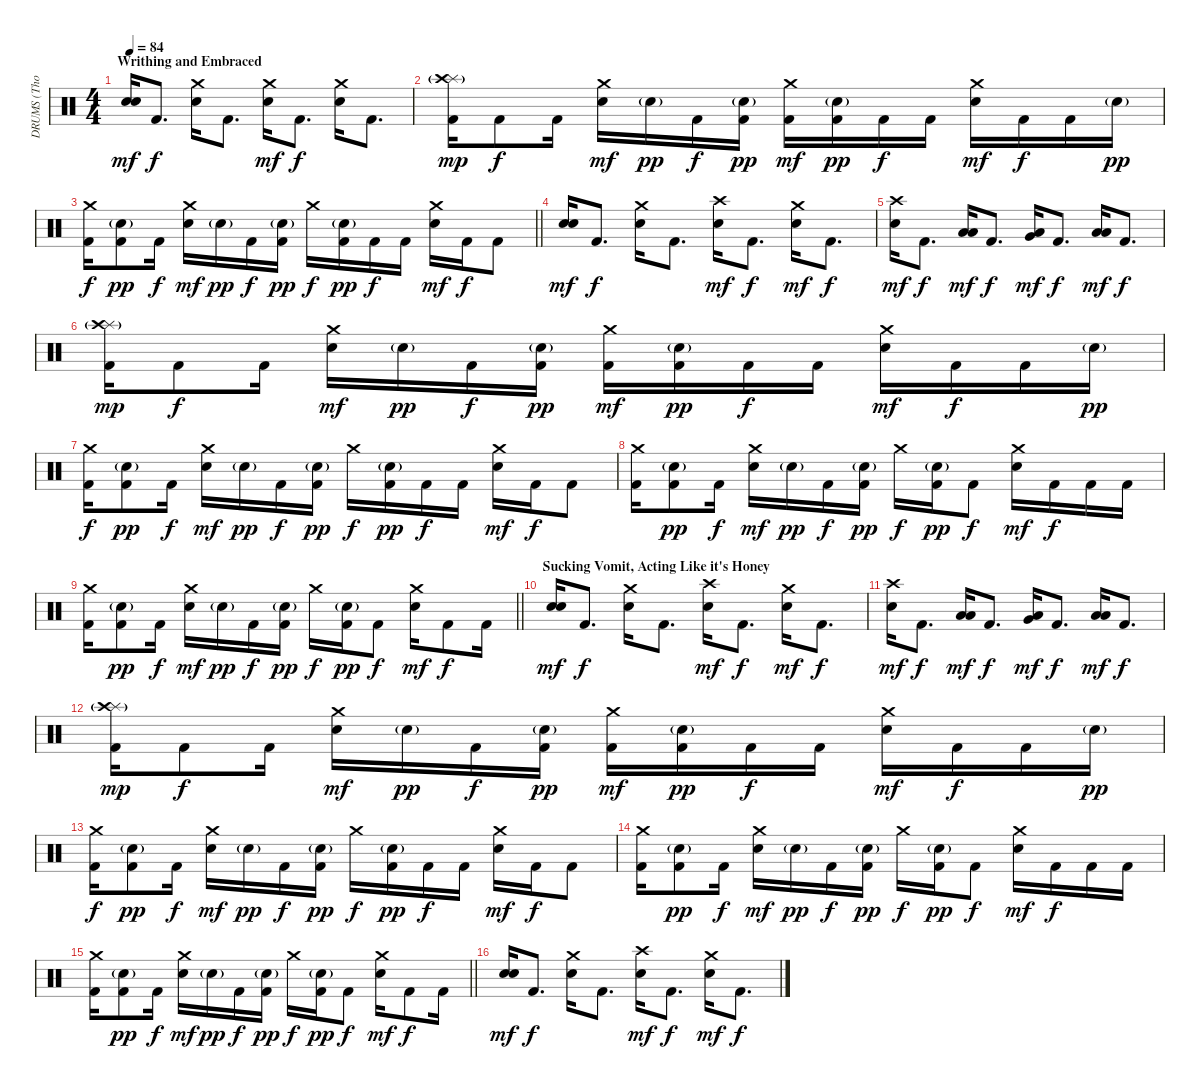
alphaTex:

\track ("DRUMS (Thomas Haake)" "DRUMS (Tho") {instrument percussion}
\staff {score}
\articulation defaults
\ts (4 4)
\section ("" "Writhing and Embraced")
\tempo 84
\clef neutral
\ks c
("Electric Snare (hit)" "Electric Snare (hit)").16{bd 120 dy mf} "Kick (hit) 2".8{d dy f} ("Crash medium (hit)" "Electric Snare (hit)").16 "Kick (hit) 2".8{d} ("Crash medium (hit)" "Electric Snare (hit)").16{dy mf} "Kick (hit) 2".8{d dy f} ("Crash medium (hit)" "Electric Snare (hit)").16 "Kick (hit) 2".8{d} |
("Splash (hit)" "Crash high (hit)"{g} "Kick (hit) 2").16{dy mp} "Kick (hit) 2".8{dy f} "Kick (hit) 2".16 ("Crash medium (hit)" "Electric Snare (hit)").16{dy mf} "Electric Snare (hit)"{g}.16{dy pp} "Kick (hit) 2".16{dy f} ("Electric Snare (hit)"{g} "Kick (hit) 2").16{dy pp} ("Crash medium (hit)" "Kick (hit) 2").16{dy mf} ("Electric Snare (hit)"{g} "Kick (hit) 2").16{dy pp} "Kick (hit) 2".16{dy f} "Kick (hit) 2".16 ("Crash medium (hit)" "Electric Snare (hit)").16{dy mf} "Kick (hit) 2".16{dy f} "Kick (hit) 2".16 "Electric Snare (hit)"{g}.16{dy pp} |
\barLineRight lightlight
("Crash medium (hit)" "Kick (hit) 2").16{dy f} ("Electric Snare (hit)"{g} "Kick (hit) 2").8{dy pp} "Kick (hit) 2".16{dy f} ("Crash medium (hit)" "Electric Snare (hit)").16{dy mf} "Electric Snare (hit)"{g}.16{dy pp} "Kick (hit) 2".16{dy f} ("Electric Snare (hit)"{g} "Kick (hit) 2").16{dy pp} "Crash medium (hit)".16{dy f} ("Electric Snare (hit)"{g} "Kick (hit) 2").16{dy pp} "Kick (hit) 2".16{dy f} "Kick (hit) 2".16 ("Crash medium (hit)" "Electric Snare (hit)").16{dy mf} "Kick (hit) 2".16{dy f} "Kick (hit) 2".8 |
("Electric Snare (hit)" "Electric Snare (hit)").16{bd 120 dy mf} "Kick (hit) 2".8{d dy f} ("Crash medium (hit)" "Electric Snare (hit)").16 "Kick (hit) 2".8{d} ("Crash high (hit)" "Electric Snare (hit)").16{dy mf} "Kick (hit) 2".8{d dy f} ("Crash medium (hit)" "Electric Snare (hit)").16{dy mf} "Kick (hit) 2".8{d dy f} |
("Crash high (hit)" "Electric Snare (hit)").16{dy mf} "Kick (hit) 2".8{d dy f} ("Low Tom (hit)" "Low Floor Tom (hit)").16{bd 60 dy mf} "Kick (hit) 2".8{d dy f} ("Very Low Tom (hit)" "Low Floor Tom (hit)").16{dy mf} "Kick (hit) 2".8{d dy f} ("Low Floor Tom (hit)" "Low Floor Tom (hit)").16{dy mf} "Kick (hit) 2".8{d dy f} |
("Splash (hit)" "Crash high (hit)"{g} "Kick (hit) 2").16{dy mp} "Kick (hit) 2".8{dy f} "Kick (hit) 2".16 ("Crash medium (hit)" "Electric Snare (hit)").16{dy mf} "Electric Snare (hit)"{g}.16{dy pp} "Kick (hit) 2".16{dy f} ("Electric Snare (hit)"{g} "Kick (hit) 2").16{dy pp} ("Crash medium (hit)" "Kick (hit) 2").16{dy mf} ("Electric Snare (hit)"{g} "Kick (hit) 2").16{dy pp} "Kick (hit) 2".16{dy f} "Kick (hit) 2".16 ("Crash medium (hit)" "Electric Snare (hit)").16{dy mf} "Kick (hit) 2".16{dy f} "Kick (hit) 2".16 "Electric Snare (hit)"{g}.16{dy pp} |
("Crash medium (hit)" "Kick (hit) 2").16{dy f} ("Electric Snare (hit)"{g} "Kick (hit) 2").8{dy pp} "Kick (hit) 2".16{dy f} ("Crash medium (hit)" "Electric Snare (hit)").16{dy mf} "Electric Snare (hit)"{g}.16{dy pp} "Kick (hit) 2".16{dy f} ("Electric Snare (hit)"{g} "Kick (hit) 2").16{dy pp} "Crash medium (hit)".16{dy f} ("Electric Snare (hit)"{g} "Kick (hit) 2").16{dy pp} "Kick (hit) 2".16{dy f} "Kick (hit) 2".16 ("Crash medium (hit)" "Electric Snare (hit)").16{dy mf} "Kick (hit) 2".16{dy f} "Kick (hit) 2".8 |
("Crash medium (hit)" "Kick (hit) 2").16 ("Electric Snare (hit)"{g} "Kick (hit) 2").8{dy pp} "Kick (hit) 2".16{dy f} ("Crash medium (hit)" "Electric Snare (hit)").16{dy mf} "Electric Snare (hit)"{g}.16{dy pp} "Kick (hit) 2".16{dy f} ("Electric Snare (hit)"{g} "Kick (hit) 2").16{dy pp} "Crash medium (hit)".16{dy f} ("Electric Snare (hit)"{g} "Kick (hit) 2").16{dy pp} "Kick (hit) 2".8{dy f} ("Crash medium (hit)" "Electric Snare (hit)").16{dy mf} "Kick (hit) 2".16{dy f} "Kick (hit) 2".16 "Kick (hit) 2".16 |
\barLineRight lightlight
("Crash medium (hit)" "Kick (hit) 2").16 ("Electric Snare (hit)"{g} "Kick (hit) 2").8{dy pp} "Kick (hit) 2".16{dy f} ("Crash medium (hit)" "Electric Snare (hit)").16{dy mf} "Electric Snare (hit)"{g}.16{dy pp} "Kick (hit) 2".16{dy f} ("Electric Snare (hit)"{g} "Kick (hit) 2").16{dy pp} "Crash medium (hit)".16{dy f} ("Electric Snare (hit)"{g} "Kick (hit) 2").16{dy pp} "Kick (hit) 2".8{dy f} ("Crash medium (hit)" "Electric Snare (hit)").16{dy mf} "Kick (hit) 2".8{dy f} "Kick (hit) 2".16 |
\section ("" "Sucking Vomit, Acting Like it's Honey")
("Electric Snare (hit)" "Electric Snare (hit)").16{bd 120 dy mf} "Kick (hit) 2".8{d dy f} ("Crash medium (hit)" "Electric Snare (hit)").16 "Kick (hit) 2".8{d} ("Crash high (hit)" "Electric Snare (hit)").16{dy mf} "Kick (hit) 2".8{d dy f} ("Crash medium (hit)" "Electric Snare (hit)").16{dy mf} "Kick (hit) 2".8{d dy f} |
("Crash high (hit)" "Electric Snare (hit)").16{dy mf} "Kick (hit) 2".8{d dy f} ("Low Tom (hit)" "Low Floor Tom (hit)").16{bd 30 dy mf} "Kick (hit) 2".8{d dy f} ("Very Low Tom (hit)" "Low Floor Tom (hit)").16{dy mf} "Kick (hit) 2".8{d dy f} ("Low Floor Tom (hit)" "Low Floor Tom (hit)").16{dy mf} "Kick (hit) 2".8{d dy f} |
("Splash (hit)" "Crash high (hit)"{g} "Kick (hit) 2").16{dy mp} "Kick (hit) 2".8{dy f} "Kick (hit) 2".16 ("Crash medium (hit)" "Electric Snare (hit)").16{dy mf} "Electric Snare (hit)"{g}.16{dy pp} "Kick (hit) 2".16{dy f} ("Electric Snare (hit)"{g} "Kick (hit) 2").16{dy pp} ("Crash medium (hit)" "Kick (hit) 2").16{dy mf} ("Electric Snare (hit)"{g} "Kick (hit) 2").16{dy pp} "Kick (hit) 2".16{dy f} "Kick (hit) 2".16 ("Crash medium (hit)" "Electric Snare (hit)").16{dy mf} "Kick (hit) 2".16{dy f} "Kick (hit) 2".16 "Electric Snare (hit)"{g}.16{dy pp} |
("Crash medium (hit)" "Kick (hit) 2").16{dy f} ("Electric Snare (hit)"{g} "Kick (hit) 2").8{dy pp} "Kick (hit) 2".16{dy f} ("Crash medium (hit)" "Electric Snare (hit)").16{dy mf} "Electric Snare (hit)"{g}.16{dy pp} "Kick (hit) 2".16{dy f} ("Electric Snare (hit)"{g} "Kick (hit) 2").16{dy pp} "Crash medium (hit)".16{dy f} ("Electric Snare (hit)"{g} "Kick (hit) 2").16{dy pp} "Kick (hit) 2".16{dy f} "Kick (hit) 2".16 ("Crash medium (hit)" "Electric Snare (hit)").16{dy mf} "Kick (hit) 2".16{dy f} "Kick (hit) 2".8 |
("Crash medium (hit)" "Kick (hit) 2").16 ("Electric Snare (hit)"{g} "Kick (hit) 2").8{dy pp} "Kick (hit) 2".16{dy f} ("Crash medium (hit)" "Electric Snare (hit)").16{dy mf} "Electric Snare (hit)"{g}.16{dy pp} "Kick (hit) 2".16{dy f} ("Electric Snare (hit)"{g} "Kick (hit) 2").16{dy pp} "Crash medium (hit)".16{dy f} ("Electric Snare (hit)"{g} "Kick (hit) 2").16{dy pp} "Kick (hit) 2".8{dy f} ("Crash medium (hit)" "Electric Snare (hit)").16{dy mf} "Kick (hit) 2".16{dy f} "Kick (hit) 2".16 "Kick (hit) 2".16 |
\barLineRight lightlight
("Crash medium (hit)" "Kick (hit) 2").16 ("Electric Snare (hit)"{g} "Kick (hit) 2").8{dy pp} "Kick (hit) 2".16{dy f} ("Crash medium (hit)" "Electric Snare (hit)").16{dy mf} "Electric Snare (hit)"{g}.16{dy pp} "Kick (hit) 2".16{dy f} ("Electric Snare (hit)"{g} "Kick (hit) 2").16{dy pp} "Crash medium (hit)".16{dy f} ("Electric Snare (hit)"{g} "Kick (hit) 2").16{dy pp} "Kick (hit) 2".8{dy f} ("Crash medium (hit)" "Electric Snare (hit)").16{dy mf} "Kick (hit) 2".8{dy f} "Kick (hit) 2".16 |
("Electric Snare (hit)" "Electric Snare (hit)").16{bd 120 dy mf} "Kick (hit) 2".8{d dy f} ("Crash medium (hit)" "Electric Snare (hit)").16 "Kick (hit) 2".8{d} ("Crash high (hit)" "Electric Snare (hit)").16{dy mf} "Kick (hit) 2".8{d dy f} ("Crash medium (hit)" "Electric Snare (hit)").16{dy mf} "Kick (hit) 2".8{d dy f}
